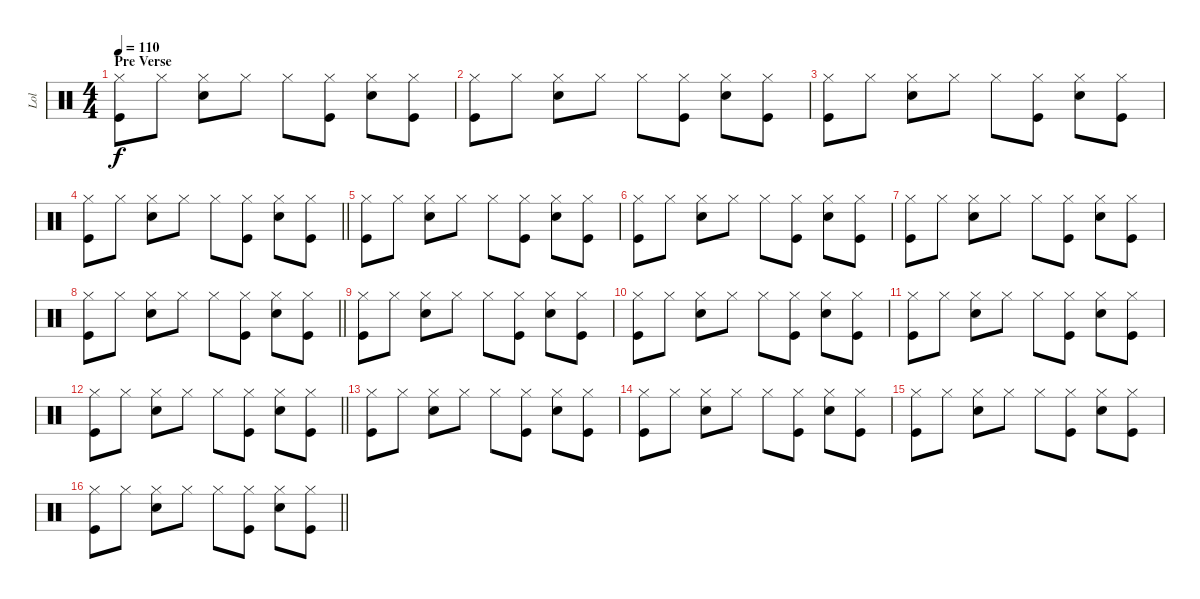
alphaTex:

\track ("Lol" "Lol") {instrument percussion}
\staff {score}
\articulation defaults
\ts (4 4)
\section ("" "Pre Verse")
\tempo 110
\clef neutral
\ks c
("Hi-Hat (closed)" "Kick (hit)").8{dy f} "Hi-Hat (closed)".8 ("Hi-Hat (closed)" "Electric Snare (hit)").8 "Hi-Hat (closed)".8 "Hi-Hat (closed)".8 ("Hi-Hat (closed)" "Kick (hit)").8 ("Hi-Hat (closed)" "Electric Snare (hit)").8 ("Hi-Hat (closed)" "Kick (hit)").8 |
("Hi-Hat (closed)" "Kick (hit)").8 "Hi-Hat (closed)".8 ("Hi-Hat (closed)" "Electric Snare (hit)").8 "Hi-Hat (closed)".8 "Hi-Hat (closed)".8 ("Hi-Hat (closed)" "Kick (hit)").8 ("Hi-Hat (closed)" "Electric Snare (hit)").8 ("Hi-Hat (closed)" "Kick (hit)").8 |
("Hi-Hat (closed)" "Kick (hit)").8 "Hi-Hat (closed)".8 ("Hi-Hat (closed)" "Electric Snare (hit)").8 "Hi-Hat (closed)".8 "Hi-Hat (closed)".8 ("Hi-Hat (closed)" "Kick (hit)").8 ("Hi-Hat (closed)" "Electric Snare (hit)").8 ("Hi-Hat (closed)" "Kick (hit)").8 |
\barLineRight lightlight
("Hi-Hat (closed)" "Kick (hit)").8 "Hi-Hat (closed)".8 ("Hi-Hat (closed)" "Electric Snare (hit)").8 "Hi-Hat (closed)".8 "Hi-Hat (closed)".8 ("Hi-Hat (closed)" "Kick (hit)").8 ("Hi-Hat (closed)" "Electric Snare (hit)").8 ("Hi-Hat (closed)" "Kick (hit)").8 |
("Hi-Hat (closed)" "Kick (hit)").8 "Hi-Hat (closed)".8 ("Hi-Hat (closed)" "Electric Snare (hit)").8 "Hi-Hat (closed)".8 "Hi-Hat (closed)".8 ("Hi-Hat (closed)" "Kick (hit)").8 ("Hi-Hat (closed)" "Electric Snare (hit)").8 ("Hi-Hat (closed)" "Kick (hit)").8 |
("Hi-Hat (closed)" "Kick (hit)").8 "Hi-Hat (closed)".8 ("Hi-Hat (closed)" "Electric Snare (hit)").8 "Hi-Hat (closed)".8 "Hi-Hat (closed)".8 ("Hi-Hat (closed)" "Kick (hit)").8 ("Hi-Hat (closed)" "Electric Snare (hit)").8 ("Hi-Hat (closed)" "Kick (hit)").8 |
("Hi-Hat (closed)" "Kick (hit)").8 "Hi-Hat (closed)".8 ("Hi-Hat (closed)" "Electric Snare (hit)").8 "Hi-Hat (closed)".8 "Hi-Hat (closed)".8 ("Hi-Hat (closed)" "Kick (hit)").8 ("Hi-Hat (closed)" "Electric Snare (hit)").8 ("Hi-Hat (closed)" "Kick (hit)").8 |
\barLineRight lightlight
("Hi-Hat (closed)" "Kick (hit)").8 "Hi-Hat (closed)".8 ("Hi-Hat (closed)" "Electric Snare (hit)").8 "Hi-Hat (closed)".8 "Hi-Hat (closed)".8 ("Hi-Hat (closed)" "Kick (hit)").8 ("Hi-Hat (closed)" "Electric Snare (hit)").8 ("Hi-Hat (closed)" "Kick (hit)").8 |
("Hi-Hat (closed)" "Kick (hit)").8 "Hi-Hat (closed)".8 ("Hi-Hat (closed)" "Electric Snare (hit)").8 "Hi-Hat (closed)".8 "Hi-Hat (closed)".8 ("Hi-Hat (closed)" "Kick (hit)").8 ("Hi-Hat (closed)" "Electric Snare (hit)").8 ("Hi-Hat (closed)" "Kick (hit)").8 |
("Hi-Hat (closed)" "Kick (hit)").8 "Hi-Hat (closed)".8 ("Hi-Hat (closed)" "Electric Snare (hit)").8 "Hi-Hat (closed)".8 "Hi-Hat (closed)".8 ("Hi-Hat (closed)" "Kick (hit)").8 ("Hi-Hat (closed)" "Electric Snare (hit)").8 ("Hi-Hat (closed)" "Kick (hit)").8 |
("Hi-Hat (closed)" "Kick (hit)").8 "Hi-Hat (closed)".8 ("Hi-Hat (closed)" "Electric Snare (hit)").8 "Hi-Hat (closed)".8 "Hi-Hat (closed)".8 ("Hi-Hat (closed)" "Kick (hit)").8 ("Hi-Hat (closed)" "Electric Snare (hit)").8 ("Hi-Hat (closed)" "Kick (hit)").8 |
\barLineRight lightlight
("Hi-Hat (closed)" "Kick (hit)").8 "Hi-Hat (closed)".8 ("Hi-Hat (closed)" "Electric Snare (hit)").8 "Hi-Hat (closed)".8 "Hi-Hat (closed)".8 ("Hi-Hat (closed)" "Kick (hit)").8 ("Hi-Hat (closed)" "Electric Snare (hit)").8 ("Hi-Hat (closed)" "Kick (hit)").8 |
("Hi-Hat (closed)" "Kick (hit)").8 "Hi-Hat (closed)".8 ("Hi-Hat (closed)" "Electric Snare (hit)").8 "Hi-Hat (closed)".8 "Hi-Hat (closed)".8 ("Hi-Hat (closed)" "Kick (hit)").8 ("Hi-Hat (closed)" "Electric Snare (hit)").8 ("Hi-Hat (closed)" "Kick (hit)").8 |
("Hi-Hat (closed)" "Kick (hit)").8 "Hi-Hat (closed)".8 ("Hi-Hat (closed)" "Electric Snare (hit)").8 "Hi-Hat (closed)".8 "Hi-Hat (closed)".8 ("Hi-Hat (closed)" "Kick (hit)").8 ("Hi-Hat (closed)" "Electric Snare (hit)").8 ("Hi-Hat (closed)" "Kick (hit)").8 |
("Hi-Hat (closed)" "Kick (hit)").8 "Hi-Hat (closed)".8 ("Hi-Hat (closed)" "Electric Snare (hit)").8 "Hi-Hat (closed)".8 "Hi-Hat (closed)".8 ("Hi-Hat (closed)" "Kick (hit)").8 ("Hi-Hat (closed)" "Electric Snare (hit)").8 ("Hi-Hat (closed)" "Kick (hit)").8 |
\barLineRight lightlight
("Hi-Hat (closed)" "Kick (hit)").8 "Hi-Hat (closed)".8 ("Hi-Hat (closed)" "Electric Snare (hit)").8 "Hi-Hat (closed)".8 "Hi-Hat (closed)".8 ("Hi-Hat (closed)" "Kick (hit)").8 ("Hi-Hat (closed)" "Electric Snare (hit)").8 ("Hi-Hat (closed)" "Kick (hit)").8
